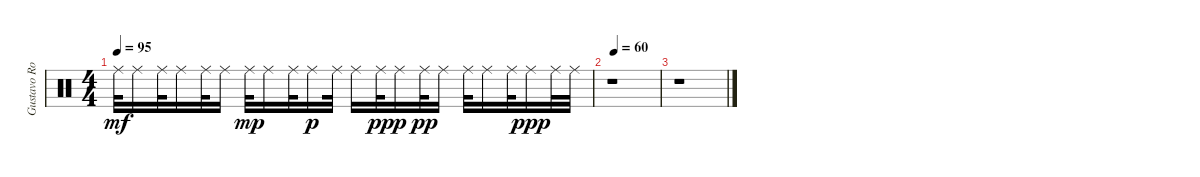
\track ("Gustavo Rowek" "Gustavo Ro") {instrument percussion}
\staff {score}
\articulation defaults
\ts (4 4)
\tempo 95
\clef neutral
\ks c "Ride (middle)".32{dy mf} "Ride (middle)".16 "Ride (middle)".32 "Ride (middle)".16 "Ride (middle)".32 "Ride (middle)".16 "Ride (middle)".32{dy mp} "Ride (middle)".16 "Ride (middle)".32 "Ride (middle)".16{dy p} "Ride (middle)".32 "Ride (middle)".16 "Ride (middle)".32{dy pp} "Ride (middle)".16{dy p} "Ride (middle)".32{dy pp} "Ride (middle)".16 "Ride (middle)".32 "Ride (middle)".16 "Ride (middle)".32 "Ride (middle)".16{dy ppp} "Ride (middle)".32 "Ride (middle)".32
|
\tempo (60 0.0625)
r.1 |
r.1
